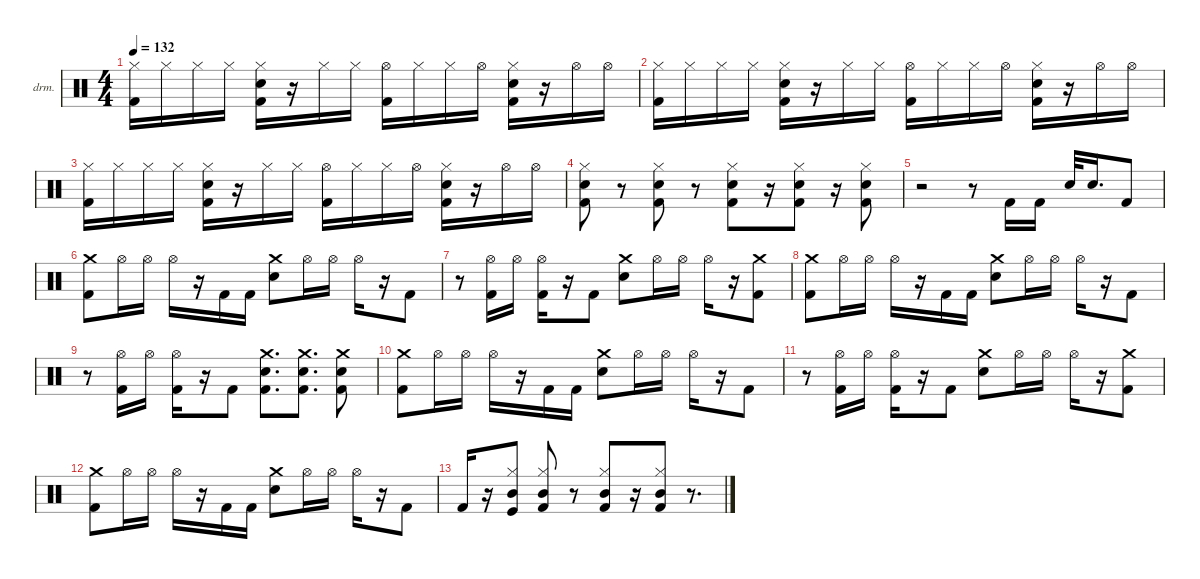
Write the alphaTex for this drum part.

\defaultSystemsLayout 4
\hideDynamics
\bracketExtendMode nobrackets
\firstSystemTrackNameOrientation horizontal
\otherSystemsTrackNameOrientation horizontal
\track ("Drumkit" "drm.") {instrument percussion}
\staff {score}
\articulation defaults
\ts (4 4)
\tempo 132
\clef neutral
\ks c
("Kick (hit) 2" "Hi-Hat (closed)").16{dy mf beam Down} "Hi-Hat (closed)".16{beam Down} "Hi-Hat (closed)".16{beam Down} "Hi-Hat (closed)".16{beam Down} ("Hi-Hat (closed)" "Kick (hit) 2" "Snare (hit) 2").16{beam Down} r.16{beam Down} "Hi-Hat (closed)".16{beam Down} "Hi-Hat (closed)".16{beam Down} ("Hi-Hat (open)" "Kick (hit) 2").16{beam Down} "Hi-Hat (closed)".16{beam Down} "Hi-Hat (closed)".16{beam Down} "Hi-Hat (open)".16{beam Down} ("Hi-Hat (closed)" "Snare (hit) 2" "Kick (hit) 2").16{beam Down} r.16{beam Down} "Hi-Hat (open)".16{beam Down} "Hi-Hat (open)".16{beam Down} |
("Kick (hit) 2" "Hi-Hat (closed)").16{beam Down} "Hi-Hat (closed)".16{beam Down} "Hi-Hat (closed)".16{beam Down} "Hi-Hat (closed)".16{beam Down} ("Hi-Hat (closed)" "Kick (hit) 2" "Snare (hit) 2").16{beam Down} r.16{beam Down} "Hi-Hat (closed)".16{beam Down} "Hi-Hat (closed)".16{beam Down} ("Hi-Hat (open)" "Kick (hit) 2").16{beam Down} "Hi-Hat (closed)".16{beam Down} "Hi-Hat (closed)".16{beam Down} "Hi-Hat (open)".16{beam Down} ("Hi-Hat (closed)" "Snare (hit) 2" "Kick (hit) 2").16{beam Down} r.16{beam Down} "Hi-Hat (open)".16{beam Down} "Hi-Hat (open)".16{beam Down} |
("Kick (hit) 2" "Hi-Hat (closed)").16{beam Down} "Hi-Hat (closed)".16{beam Down} "Hi-Hat (closed)".16{beam Down} "Hi-Hat (closed)".16{beam Down} ("Hi-Hat (closed)" "Kick (hit) 2" "Snare (hit) 2").16{beam Down} r.16{beam Down} "Hi-Hat (closed)".16{beam Down} "Hi-Hat (closed)".16{beam Down} ("Hi-Hat (open)" "Kick (hit) 2").16{beam Down} "Hi-Hat (closed)".16{beam Down} "Hi-Hat (closed)".16{beam Down} "Hi-Hat (open)".16{beam Down} ("Hi-Hat (closed)" "Snare (hit) 2" "Kick (hit) 2").16{beam Down} r.16{beam Down} "Hi-Hat (open)".16{beam Down} "Hi-Hat (open)".16{beam Down} |
("Hi-Hat (closed)" "Snare (hit) 2" "Kick (hit) 2").8{beam Down} r.8{beam Down} ("Hi-Hat (closed)" "Snare (hit) 2" "Kick (hit) 2").8{beam Down} r.8{beam Down} ("Hi-Hat (closed)" "Snare (hit) 2" "Kick (hit) 2").8{beam Down} r.16{beam Down} ("Hi-Hat (closed)" "Snare (hit) 2" "Kick (hit) 2").8{beam Down} r.16{beam Down} ("Hi-Hat (closed)" "Snare (hit) 2" "Kick (hit) 2").8{beam Down} |
r.2{beam Down} r.8{beam Down} "Kick (hit) 2".16{beam Up} "Kick (hit) 2".16{beam Up} "Snare (hit) 2".32{beam Up} "Snare (hit) 2".16{d beam Up} "Kick (hit) 2".8{beam Up} |
("Crash medium (hit)" "Kick (hit) 2").8{beam Down} "Hi-Hat (open)".16{beam Down} "Hi-Hat (open)".16{beam Down} "Hi-Hat (open)".16{beam Down} r.16{beam Down} "Kick (hit) 2".16{beam Down} "Kick (hit) 2".16{beam Down} ("Crash medium (hit)" "Snare (hit) 2").8{beam Down} "Hi-Hat (open)".16{beam Down} "Hi-Hat (open)".16{beam Down} "Hi-Hat (open)".16{beam Down} r.16{beam Down} "Kick (hit) 2".8{beam Down} |
r.8{beam Down} ("Hi-Hat (open)" "Kick (hit) 2").16{beam Down} "Hi-Hat (open)".16{beam Down} ("Hi-Hat (open)" "Kick (hit) 2").16{beam Down} r.16{beam Down} "Kick (hit) 2".8{beam Down} ("Crash medium (hit)" "Snare (hit) 2").8{beam Down} "Hi-Hat (open)".16{beam Down} "Hi-Hat (open)".16{beam Down} "Hi-Hat (open)".16{beam Down} r.16{beam Down} ("Kick (hit) 2" "Crash medium (hit)").8{beam Down} |
("Crash medium (hit)" "Kick (hit) 2").8{beam Down} "Hi-Hat (open)".16{beam Down} "Hi-Hat (open)".16{beam Down} "Hi-Hat (open)".16{beam Down} r.16{beam Down} "Kick (hit) 2".16{beam Down} "Kick (hit) 2".16{beam Down} ("Crash medium (hit)" "Snare (hit) 2").8{beam Down} "Hi-Hat (open)".16{beam Down} "Hi-Hat (open)".16{beam Down} "Hi-Hat (open)".16{beam Down} r.16{beam Down} "Kick (hit) 2".8{beam Down} |
r.8{beam Down} ("Kick (hit) 2" "Hi-Hat (open)").16{beam Down} "Hi-Hat (open)".16{beam Down} ("Hi-Hat (open)" "Kick (hit) 2").16{beam Down} r.16{beam Down} "Kick (hit) 2".8{beam Down} ("Kick (hit) 2" "Snare (hit) 2" "Crash medium (hit)").8{d beam Down} ("Kick (hit) 2" "Snare (hit) 2" "Crash medium (hit)").8{d beam Down} ("Kick (hit) 2" "Snare (hit) 2" "Crash medium (hit)").8{beam Down} |
("Crash medium (hit)" "Kick (hit) 2").8{beam Down} "Hi-Hat (open)".16{beam Down} "Hi-Hat (open)".16{beam Down} "Hi-Hat (open)".16{beam Down} r.16{beam Down} "Kick (hit) 2".16{beam Down} "Kick (hit) 2".16{beam Down} ("Crash medium (hit)" "Snare (hit) 2").8{beam Down} "Hi-Hat (open)".16{beam Down} "Hi-Hat (open)".16{beam Down} "Hi-Hat (open)".16{beam Down} r.16{beam Down} "Kick (hit) 2".8{beam Down} |
r.8{beam Down} ("Hi-Hat (open)" "Kick (hit) 2").16{beam Down} "Hi-Hat (open)".16{beam Down} ("Hi-Hat (open)" "Kick (hit) 2").16{beam Down} r.16{beam Down} "Kick (hit) 2".8{beam Down} ("Crash medium (hit)" "Snare (hit) 2").8{beam Down} "Hi-Hat (open)".16{beam Down} "Hi-Hat (open)".16{beam Down} "Hi-Hat (open)".16{beam Down} r.16{beam Down} ("Kick (hit) 2" "Crash medium (hit)").8{beam Down} |
("Crash medium (hit)" "Kick (hit) 2").8{beam Down} "Hi-Hat (open)".16{beam Down} "Hi-Hat (open)".16{beam Down} "Hi-Hat (open)".16{beam Down} r.16{beam Down} "Kick (hit) 2".16{beam Down} "Kick (hit) 2".16{beam Down} ("Crash medium (hit)" "Snare (hit) 2").8{beam Down} "Hi-Hat (open)".16{beam Down} "Hi-Hat (open)".16{beam Down} "Hi-Hat (open)".16{beam Down} r.16{beam Down} "Kick (hit) 2".8{beam Down} |
"Kick (hit) 2".16{beam Up} r.16{beam Up} ("Kick (hit)" "Mid Tom (hit)" "Hi-Hat (closed)").8{beam Up} ("Kick (hit) 2" "Mid Tom (hit)" "Hi-Hat (closed)").8{beam Up} r.8{beam Up} ("Kick (hit) 2" "Mid Tom (hit)" "Hi-Hat (closed)").8{beam Up} r.16{beam Up} ("Kick (hit) 2" "Mid Tom (hit)" "Hi-Hat (closed)").8{beam Up} r.8{d beam Up}
